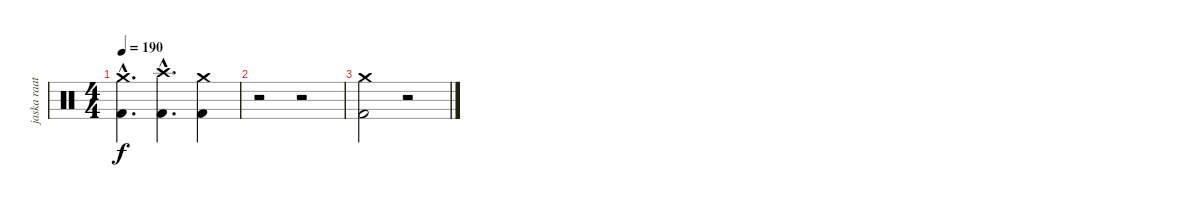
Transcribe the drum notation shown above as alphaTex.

\track ("jaska raatikainen" "jaska raat") {instrument percussion}
\staff {score}
\articulation defaults
\ts (4 4)
\tempo 190
\clef neutral
\ks c
("Crash medium (hit)"{hac} "Kick (hit) 2"{hac}).4{d dy f} ("Crash high (hit)"{hac} "Kick (hit) 2"{hac}).4{d} ("Crash medium (hit)" "Kick (hit) 2").4 |
r.2 r.2 |
("Crash medium (hit)" "Kick (hit) 2").2 r.2
